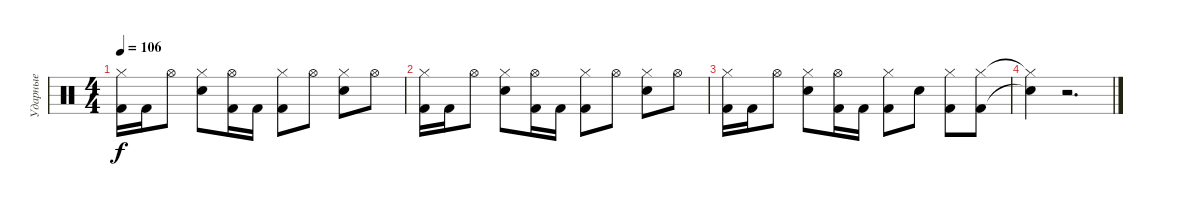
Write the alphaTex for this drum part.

\track ("Ударные" "Ударные") {instrument percussion}
\staff {score}
\articulation defaults
\ts (4 4)
\tempo 106
\clef neutral
\ks c
("Hi-Hat (closed)" "Kick (hit) 2").16{dy f} "Kick (hit) 2".16 "Hi-Hat (open)".8 ("Hi-Hat (closed)" "Electric Snare (hit)").8 ("Kick (hit) 2" "Hi-Hat (open)").16 "Kick (hit) 2".16 ("Hi-Hat (closed)" "Kick (hit) 2").8 "Hi-Hat (open)".8 ("Hi-Hat (closed)" "Electric Snare (hit)").8 "Hi-Hat (open)".8 |
("Hi-Hat (closed)" "Kick (hit) 2").16 "Kick (hit) 2".16 "Hi-Hat (open)".8 ("Hi-Hat (closed)" "Electric Snare (hit)").8 ("Kick (hit) 2" "Hi-Hat (open)").16 "Kick (hit) 2".16 ("Hi-Hat (closed)" "Kick (hit) 2").8 "Hi-Hat (open)".8 ("Hi-Hat (closed)" "Electric Snare (hit)").8 "Hi-Hat (open)".8 |
("Hi-Hat (closed)" "Kick (hit) 2").16 "Kick (hit) 2".16 "Hi-Hat (open)".8 ("Hi-Hat (closed)" "Electric Snare (hit)").8 ("Kick (hit) 2" "Hi-Hat (open)").16 "Kick (hit) 2".16 ("Hi-Hat (closed)" "Kick (hit) 2").8 "Electric Snare (hit)".8 ("Hi-Hat (closed)" "Kick (hit) 2").8 ("Hi-Hat (closed)" "Kick (hit) 2").8 |
("Hi-Hat (closed)"{t} "Electric Snare (hit)"{t}).4 r.2{d}
